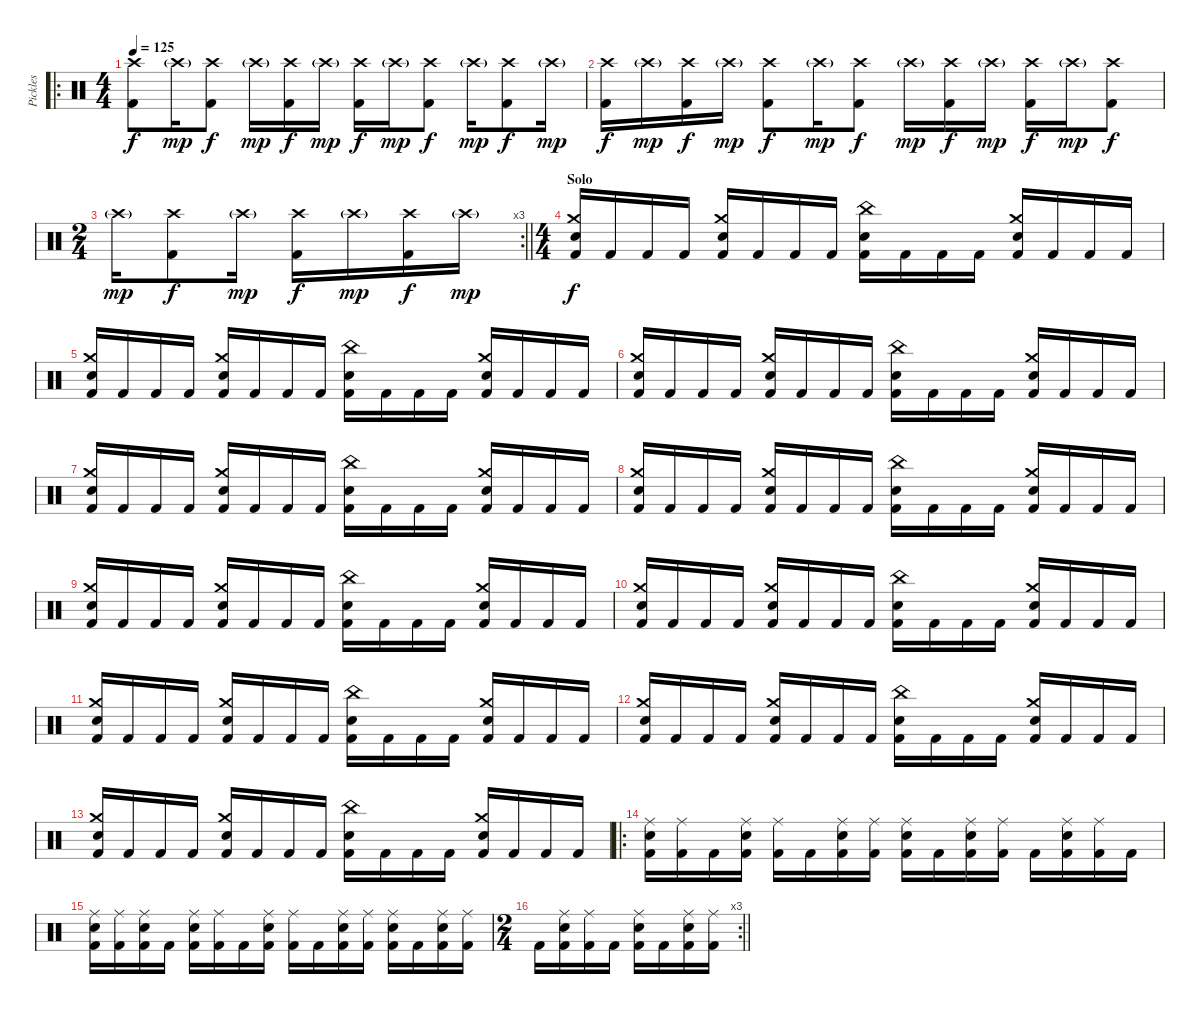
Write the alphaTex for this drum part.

\track ("Pickles" "Pickles") {instrument percussion}
\staff {score}
\articulation defaults
\ro
\ts (4 4)
\tempo 125
\clef neutral
\ks c
("Crash high (hit)" "Kick (hit) 2").8{dy f} "Crash high (hit)"{g}.16{dy mp} ("Crash high (hit)" "Kick (hit) 2").8{dy f} "Crash high (hit)"{g}.16{dy mp} ("Crash high (hit)" "Kick (hit) 2").16{dy f} "Crash high (hit)"{g}.16{dy mp} ("Crash high (hit)" "Kick (hit) 2").16{dy f} "Crash high (hit)"{g}.16{dy mp} ("Crash high (hit)" "Kick (hit) 2").8{dy f} "Crash high (hit)"{g}.16{dy mp} ("Crash high (hit)" "Kick (hit) 2").8{dy f} "Crash high (hit)"{g}.16{dy mp} |
("Crash high (hit)" "Kick (hit) 2").16{dy f} "Crash high (hit)"{g}.16{dy mp} ("Crash high (hit)" "Kick (hit) 2").16{dy f} "Crash high (hit)"{g}.16{dy mp} ("Crash high (hit)" "Kick (hit) 2").8{dy f} "Crash high (hit)"{g}.16{dy mp} ("Crash high (hit)" "Kick (hit) 2").8{dy f} "Crash high (hit)"{g}.16{dy mp} ("Crash high (hit)" "Kick (hit) 2").16{dy f} "Crash high (hit)"{g}.16{dy mp} ("Crash high (hit)" "Kick (hit) 2").16{dy f} "Crash high (hit)"{g}.16{dy mp} ("Crash high (hit)" "Kick (hit) 2").8{dy f} |
\rc 3
\ts (2 4)
\barLineRight lightlight "Crash high (hit)"{g}.16{dy mp}
("Crash high (hit)" "Kick (hit) 2").8{dy f} "Crash high (hit)"{g}.16{dy mp} ("Crash high (hit)" "Kick (hit) 2").16{dy f} "Crash high (hit)"{g}.16{dy mp} ("Crash high (hit)" "Kick (hit) 2").16{dy f} "Crash high (hit)"{g}.16{dy mp} |
\ts (4 4)
\section ("" "Solo")
("Crash medium (hit)" "Electric Snare (hit)" "Kick (hit) 2").16{dy f} "Kick (hit) 2".16 "Kick (hit) 2".16 "Kick (hit) 2".16 ("Crash medium (hit)" "Electric Snare (hit)" "Kick (hit) 2").16 "Kick (hit) 2".16 "Kick (hit) 2".16 "Kick (hit) 2".16 ("China (hit)" "Electric Snare (hit)" "Kick (hit) 2").16 "Kick (hit) 2".16 "Kick (hit) 2".16 "Kick (hit) 2".16 ("Crash medium (hit)" "Electric Snare (hit)" "Kick (hit) 2").16 "Kick (hit) 2".16 "Kick (hit) 2".16 "Kick (hit) 2".16 |
("Crash medium (hit)" "Electric Snare (hit)" "Kick (hit) 2").16 "Kick (hit) 2".16 "Kick (hit) 2".16 "Kick (hit) 2".16 ("Crash medium (hit)" "Electric Snare (hit)" "Kick (hit) 2").16 "Kick (hit) 2".16 "Kick (hit) 2".16 "Kick (hit) 2".16 ("China (hit)" "Electric Snare (hit)" "Kick (hit) 2").16 "Kick (hit) 2".16 "Kick (hit) 2".16 "Kick (hit) 2".16 ("Crash medium (hit)" "Electric Snare (hit)" "Kick (hit) 2").16 "Kick (hit) 2".16 "Kick (hit) 2".16 "Kick (hit) 2".16 |
("Crash medium (hit)" "Electric Snare (hit)" "Kick (hit) 2").16 "Kick (hit) 2".16 "Kick (hit) 2".16 "Kick (hit) 2".16 ("Crash medium (hit)" "Electric Snare (hit)" "Kick (hit) 2").16 "Kick (hit) 2".16 "Kick (hit) 2".16 "Kick (hit) 2".16 ("China (hit)" "Electric Snare (hit)" "Kick (hit) 2").16 "Kick (hit) 2".16 "Kick (hit) 2".16 "Kick (hit) 2".16 ("Crash medium (hit)" "Electric Snare (hit)" "Kick (hit) 2").16 "Kick (hit) 2".16 "Kick (hit) 2".16 "Kick (hit) 2".16 |
("Crash medium (hit)" "Electric Snare (hit)" "Kick (hit) 2").16 "Kick (hit) 2".16 "Kick (hit) 2".16 "Kick (hit) 2".16 ("Crash medium (hit)" "Electric Snare (hit)" "Kick (hit) 2").16 "Kick (hit) 2".16 "Kick (hit) 2".16 "Kick (hit) 2".16 ("China (hit)" "Electric Snare (hit)" "Kick (hit) 2").16 "Kick (hit) 2".16 "Kick (hit) 2".16 "Kick (hit) 2".16 ("Crash medium (hit)" "Electric Snare (hit)" "Kick (hit) 2").16 "Kick (hit) 2".16 "Kick (hit) 2".16 "Kick (hit) 2".16 |
("Crash medium (hit)" "Electric Snare (hit)" "Kick (hit) 2").16 "Kick (hit) 2".16 "Kick (hit) 2".16 "Kick (hit) 2".16 ("Crash medium (hit)" "Electric Snare (hit)" "Kick (hit) 2").16 "Kick (hit) 2".16 "Kick (hit) 2".16 "Kick (hit) 2".16 ("China (hit)" "Electric Snare (hit)" "Kick (hit) 2").16 "Kick (hit) 2".16 "Kick (hit) 2".16 "Kick (hit) 2".16 ("Crash medium (hit)" "Electric Snare (hit)" "Kick (hit) 2").16 "Kick (hit) 2".16 "Kick (hit) 2".16 "Kick (hit) 2".16 |
("Crash medium (hit)" "Electric Snare (hit)" "Kick (hit) 2").16 "Kick (hit) 2".16 "Kick (hit) 2".16 "Kick (hit) 2".16 ("Crash medium (hit)" "Electric Snare (hit)" "Kick (hit) 2").16 "Kick (hit) 2".16 "Kick (hit) 2".16 "Kick (hit) 2".16 ("China (hit)" "Electric Snare (hit)" "Kick (hit) 2").16 "Kick (hit) 2".16 "Kick (hit) 2".16 "Kick (hit) 2".16 ("Crash medium (hit)" "Electric Snare (hit)" "Kick (hit) 2").16 "Kick (hit) 2".16 "Kick (hit) 2".16 "Kick (hit) 2".16 |
("Crash medium (hit)" "Electric Snare (hit)" "Kick (hit) 2").16 "Kick (hit) 2".16 "Kick (hit) 2".16 "Kick (hit) 2".16 ("Crash medium (hit)" "Electric Snare (hit)" "Kick (hit) 2").16 "Kick (hit) 2".16 "Kick (hit) 2".16 "Kick (hit) 2".16 ("China (hit)" "Electric Snare (hit)" "Kick (hit) 2").16 "Kick (hit) 2".16 "Kick (hit) 2".16 "Kick (hit) 2".16 ("Crash medium (hit)" "Electric Snare (hit)" "Kick (hit) 2").16 "Kick (hit) 2".16 "Kick (hit) 2".16 "Kick (hit) 2".16 |
("Crash medium (hit)" "Electric Snare (hit)" "Kick (hit) 2").16 "Kick (hit) 2".16 "Kick (hit) 2".16 "Kick (hit) 2".16 ("Crash medium (hit)" "Electric Snare (hit)" "Kick (hit) 2").16 "Kick (hit) 2".16 "Kick (hit) 2".16 "Kick (hit) 2".16 ("China (hit)" "Electric Snare (hit)" "Kick (hit) 2").16 "Kick (hit) 2".16 "Kick (hit) 2".16 "Kick (hit) 2".16 ("Crash medium (hit)" "Electric Snare (hit)" "Kick (hit) 2").16 "Kick (hit) 2".16 "Kick (hit) 2".16 "Kick (hit) 2".16 |
("Crash medium (hit)" "Electric Snare (hit)" "Kick (hit) 2").16 "Kick (hit) 2".16 "Kick (hit) 2".16 "Kick (hit) 2".16 ("Crash medium (hit)" "Electric Snare (hit)" "Kick (hit) 2").16 "Kick (hit) 2".16 "Kick (hit) 2".16 "Kick (hit) 2".16 ("China (hit)" "Electric Snare (hit)" "Kick (hit) 2").16 "Kick (hit) 2".16 "Kick (hit) 2".16 "Kick (hit) 2".16 ("Crash medium (hit)" "Electric Snare (hit)" "Kick (hit) 2").16 "Kick (hit) 2".16 "Kick (hit) 2".16 "Kick (hit) 2".16 |
("Crash medium (hit)" "Electric Snare (hit)" "Kick (hit) 2").16 "Kick (hit) 2".16 "Kick (hit) 2".16 "Kick (hit) 2".16 ("Crash medium (hit)" "Electric Snare (hit)" "Kick (hit) 2").16 "Kick (hit) 2".16 "Kick (hit) 2".16 "Kick (hit) 2".16 ("China (hit)" "Electric Snare (hit)" "Kick (hit) 2").16 "Kick (hit) 2".16 "Kick (hit) 2".16 "Kick (hit) 2".16 ("Crash medium (hit)" "Electric Snare (hit)" "Kick (hit) 2").16 "Kick (hit) 2".16 "Kick (hit) 2".16 "Kick (hit) 2".16 |
\ro
("Ride (middle)" "Electric Snare (hit)" "Kick (hit) 2").16 ("Ride (middle)" "Kick (hit) 2").16 "Kick (hit) 2".16 ("Ride (middle)" "Electric Snare (hit)" "Kick (hit) 2").16 ("Ride (middle)" "Kick (hit) 2").16 "Kick (hit) 2".16 ("Ride (middle)" "Electric Snare (hit)" "Kick (hit) 2").16 ("Ride (middle)" "Kick (hit) 2").16 ("Ride (middle)" "Electric Snare (hit)" "Kick (hit) 2").16 "Kick (hit) 2".16 ("Ride (middle)" "Electric Snare (hit)" "Kick (hit) 2").16 ("Ride (middle)" "Kick (hit) 2").16 "Kick (hit) 2".16 ("Ride (middle)" "Electric Snare (hit)" "Kick (hit) 2").16 ("Ride (middle)" "Kick (hit) 2").16 "Kick (hit) 2".16 |
("Ride (middle)" "Electric Snare (hit)" "Kick (hit) 2").16 ("Ride (middle)" "Kick (hit) 2").16 ("Ride (middle)" "Electric Snare (hit)" "Kick (hit) 2").16 "Kick (hit) 2".16 ("Ride (middle)" "Electric Snare (hit)" "Kick (hit) 2").16 ("Ride (middle)" "Kick (hit) 2").16 "Kick (hit) 2".16 ("Ride (middle)" "Electric Snare (hit)" "Kick (hit) 2").16 ("Ride (middle)" "Kick (hit) 2").16 "Kick (hit) 2".16 ("Ride (middle)" "Electric Snare (hit)" "Kick (hit) 2").16 ("Ride (middle)" "Kick (hit) 2").16 ("Ride (middle)" "Electric Snare (hit)" "Kick (hit) 2").16 "Kick (hit) 2".16 ("Ride (middle)" "Electric Snare (hit)" "Kick (hit) 2").16 ("Ride (middle)" "Kick (hit) 2").16 |
\rc 3
\ts (2 4)
\barLineRight lightlight "Kick (hit) 2".16
("Ride (middle)" "Electric Snare (hit)" "Kick (hit) 2").16 ("Ride (middle)" "Kick (hit) 2").16 "Kick (hit) 2".16 ("Ride (middle)" "Electric Snare (hit)" "Kick (hit) 2").16 "Kick (hit) 2".16 ("Ride (middle)" "Electric Snare (hit)" "Kick (hit) 2").16 ("Ride (middle)" "Kick (hit) 2").16
